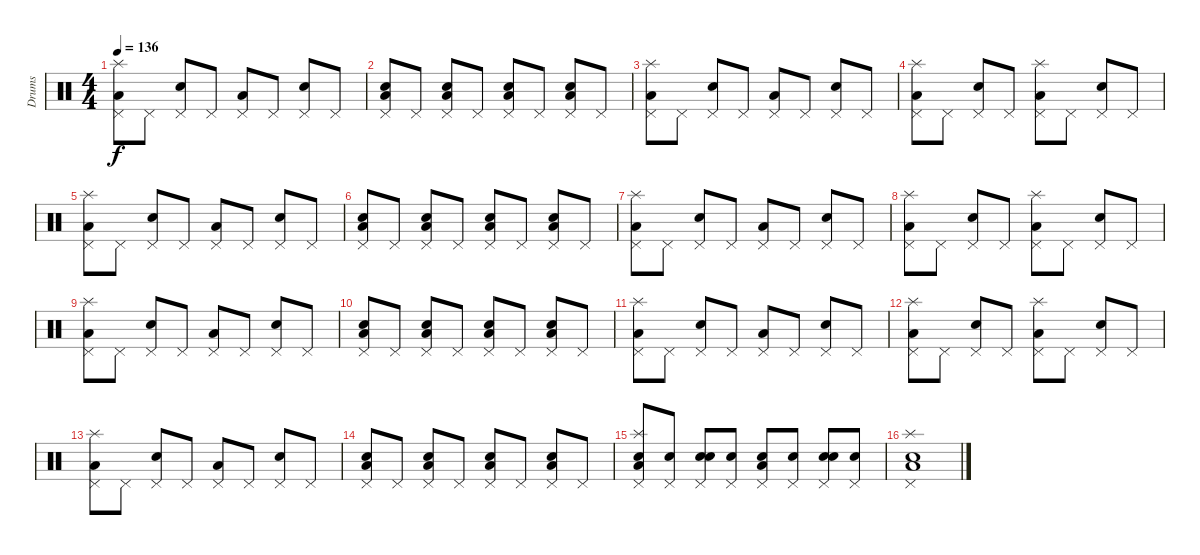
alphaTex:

\track ("Drums" "Drums") {instrument percussion}
\staff {score}
\articulation defaults
\ts (4 4)
\tempo 136
\clef neutral
\ks c
("Low Floor Tom (hit)" "Pedal Hi-Hat (hit)" "Splash (hit)").8{dy f} "Pedal Hi-Hat (hit)".8 ("Electric Snare (hit)" "Pedal Hi-Hat (hit)").8 "Pedal Hi-Hat (hit)".8 ("Low Floor Tom (hit)" "Pedal Hi-Hat (hit)").8 "Pedal Hi-Hat (hit)".8 ("Electric Snare (hit)" "Pedal Hi-Hat (hit)").8 "Pedal Hi-Hat (hit)".8 |
("Electric Snare (hit)" "Low Floor Tom (hit)" "Pedal Hi-Hat (hit)").8 "Pedal Hi-Hat (hit)".8 ("Electric Snare (hit)" "Low Floor Tom (hit)" "Pedal Hi-Hat (hit)").8 "Pedal Hi-Hat (hit)".8 ("Electric Snare (hit)" "Low Floor Tom (hit)" "Pedal Hi-Hat (hit)").8 "Pedal Hi-Hat (hit)".8 ("Electric Snare (hit)" "Low Floor Tom (hit)" "Pedal Hi-Hat (hit)").8 "Pedal Hi-Hat (hit)".8 |
("Low Floor Tom (hit)" "Pedal Hi-Hat (hit)" "Splash (hit)").8 "Pedal Hi-Hat (hit)".8 ("Electric Snare (hit)" "Pedal Hi-Hat (hit)").8 "Pedal Hi-Hat (hit)".8 ("Low Floor Tom (hit)" "Pedal Hi-Hat (hit)").8 "Pedal Hi-Hat (hit)".8 ("Electric Snare (hit)" "Pedal Hi-Hat (hit)").8 "Pedal Hi-Hat (hit)".8 |
("Low Floor Tom (hit)" "Pedal Hi-Hat (hit)" "Splash (hit)").8 "Pedal Hi-Hat (hit)".8 ("Electric Snare (hit)" "Pedal Hi-Hat (hit)").8 "Pedal Hi-Hat (hit)".8 ("Low Floor Tom (hit)" "Pedal Hi-Hat (hit)" "Splash (hit)").8 "Pedal Hi-Hat (hit)".8 ("Electric Snare (hit)" "Pedal Hi-Hat (hit)").8 "Pedal Hi-Hat (hit)".8 |
("Low Floor Tom (hit)" "Pedal Hi-Hat (hit)" "Splash (hit)").8 "Pedal Hi-Hat (hit)".8 ("Electric Snare (hit)" "Pedal Hi-Hat (hit)").8 "Pedal Hi-Hat (hit)".8 ("Low Floor Tom (hit)" "Pedal Hi-Hat (hit)").8 "Pedal Hi-Hat (hit)".8 ("Electric Snare (hit)" "Pedal Hi-Hat (hit)").8 "Pedal Hi-Hat (hit)".8 |
("Electric Snare (hit)" "Low Floor Tom (hit)" "Pedal Hi-Hat (hit)").8 "Pedal Hi-Hat (hit)".8 ("Electric Snare (hit)" "Low Floor Tom (hit)" "Pedal Hi-Hat (hit)").8 "Pedal Hi-Hat (hit)".8 ("Electric Snare (hit)" "Low Floor Tom (hit)" "Pedal Hi-Hat (hit)").8 "Pedal Hi-Hat (hit)".8 ("Electric Snare (hit)" "Low Floor Tom (hit)" "Pedal Hi-Hat (hit)").8 "Pedal Hi-Hat (hit)".8 |
("Low Floor Tom (hit)" "Pedal Hi-Hat (hit)" "Splash (hit)").8 "Pedal Hi-Hat (hit)".8 ("Electric Snare (hit)" "Pedal Hi-Hat (hit)").8 "Pedal Hi-Hat (hit)".8 ("Low Floor Tom (hit)" "Pedal Hi-Hat (hit)").8 "Pedal Hi-Hat (hit)".8 ("Electric Snare (hit)" "Pedal Hi-Hat (hit)").8 "Pedal Hi-Hat (hit)".8 |
("Low Floor Tom (hit)" "Pedal Hi-Hat (hit)" "Splash (hit)").8 "Pedal Hi-Hat (hit)".8 ("Electric Snare (hit)" "Pedal Hi-Hat (hit)").8 "Pedal Hi-Hat (hit)".8 ("Low Floor Tom (hit)" "Pedal Hi-Hat (hit)" "Splash (hit)").8 "Pedal Hi-Hat (hit)".8 ("Electric Snare (hit)" "Pedal Hi-Hat (hit)").8 "Pedal Hi-Hat (hit)".8 |
("Low Floor Tom (hit)" "Pedal Hi-Hat (hit)" "Splash (hit)").8 "Pedal Hi-Hat (hit)".8 ("Electric Snare (hit)" "Pedal Hi-Hat (hit)").8 "Pedal Hi-Hat (hit)".8 ("Low Floor Tom (hit)" "Pedal Hi-Hat (hit)").8 "Pedal Hi-Hat (hit)".8 ("Electric Snare (hit)" "Pedal Hi-Hat (hit)").8 "Pedal Hi-Hat (hit)".8 |
("Electric Snare (hit)" "Low Floor Tom (hit)" "Pedal Hi-Hat (hit)").8 "Pedal Hi-Hat (hit)".8 ("Electric Snare (hit)" "Low Floor Tom (hit)" "Pedal Hi-Hat (hit)").8 "Pedal Hi-Hat (hit)".8 ("Electric Snare (hit)" "Low Floor Tom (hit)" "Pedal Hi-Hat (hit)").8 "Pedal Hi-Hat (hit)".8 ("Electric Snare (hit)" "Low Floor Tom (hit)" "Pedal Hi-Hat (hit)").8 "Pedal Hi-Hat (hit)".8 |
("Low Floor Tom (hit)" "Pedal Hi-Hat (hit)" "Splash (hit)").8 "Pedal Hi-Hat (hit)".8 ("Electric Snare (hit)" "Pedal Hi-Hat (hit)").8 "Pedal Hi-Hat (hit)".8 ("Low Floor Tom (hit)" "Pedal Hi-Hat (hit)").8 "Pedal Hi-Hat (hit)".8 ("Electric Snare (hit)" "Pedal Hi-Hat (hit)").8 "Pedal Hi-Hat (hit)".8 |
("Low Floor Tom (hit)" "Pedal Hi-Hat (hit)" "Splash (hit)").8 "Pedal Hi-Hat (hit)".8 ("Electric Snare (hit)" "Pedal Hi-Hat (hit)").8 "Pedal Hi-Hat (hit)".8 ("Low Floor Tom (hit)" "Pedal Hi-Hat (hit)" "Splash (hit)").8 "Pedal Hi-Hat (hit)".8 ("Electric Snare (hit)" "Pedal Hi-Hat (hit)").8 "Pedal Hi-Hat (hit)".8 |
("Low Floor Tom (hit)" "Pedal Hi-Hat (hit)" "Splash (hit)").8 "Pedal Hi-Hat (hit)".8 ("Electric Snare (hit)" "Pedal Hi-Hat (hit)").8 "Pedal Hi-Hat (hit)".8 ("Low Floor Tom (hit)" "Pedal Hi-Hat (hit)").8 "Pedal Hi-Hat (hit)".8 ("Electric Snare (hit)" "Pedal Hi-Hat (hit)").8 "Pedal Hi-Hat (hit)".8 |
("Electric Snare (hit)" "Low Floor Tom (hit)" "Pedal Hi-Hat (hit)").8 "Pedal Hi-Hat (hit)".8 ("Electric Snare (hit)" "Low Floor Tom (hit)" "Pedal Hi-Hat (hit)").8 "Pedal Hi-Hat (hit)".8 ("Electric Snare (hit)" "Low Floor Tom (hit)" "Pedal Hi-Hat (hit)").8 "Pedal Hi-Hat (hit)".8 ("Electric Snare (hit)" "Low Floor Tom (hit)" "Pedal Hi-Hat (hit)").8 "Pedal Hi-Hat (hit)".8 |
("Snare (hit)" "Low Floor Tom (hit)" "Pedal Hi-Hat (hit)" "Splash (hit)").8 ("Snare (hit)" "Pedal Hi-Hat (hit)").8 ("Snare (hit)" "Electric Snare (hit)" "Pedal Hi-Hat (hit)").8 ("Snare (hit)" "Pedal Hi-Hat (hit)").8 ("Snare (hit)" "Low Floor Tom (hit)" "Pedal Hi-Hat (hit)").8 ("Snare (hit)" "Pedal Hi-Hat (hit)").8 ("Snare (hit)" "Electric Snare (hit)" "Pedal Hi-Hat (hit)").8 ("Snare (hit)" "Pedal Hi-Hat (hit)").8 |
("Electric Snare (hit)" "Low Floor Tom (hit)" "Pedal Hi-Hat (hit)" "Splash (hit)").1
